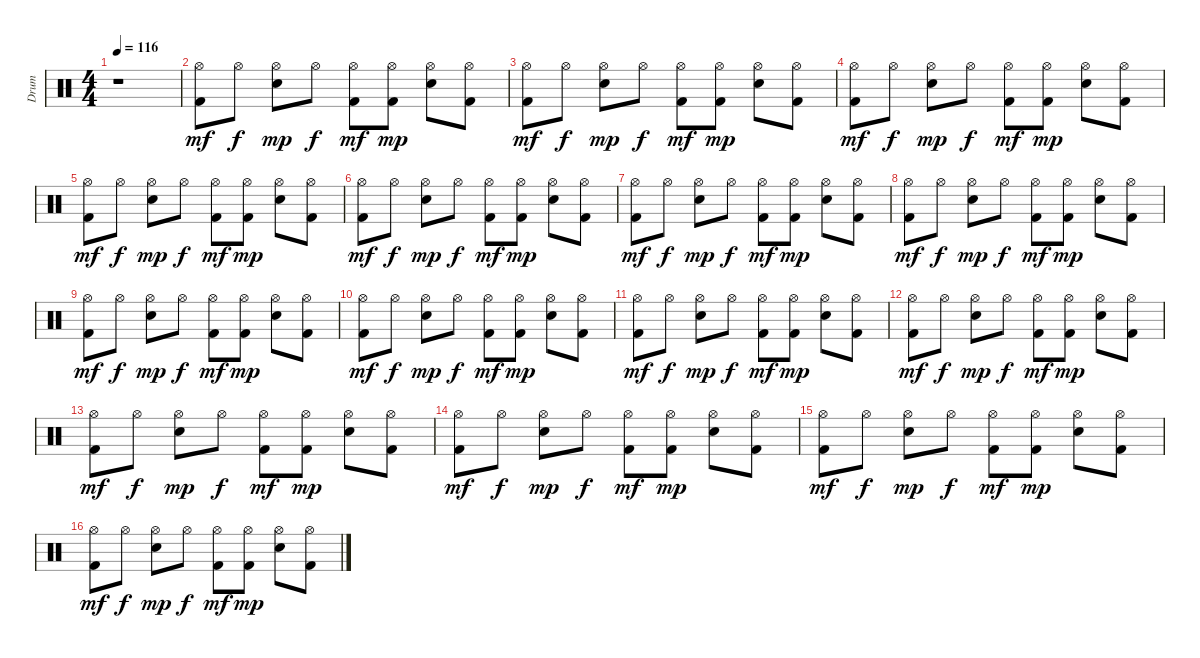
\track ("Drum" "Drum") {instrument percussion}
\staff {score}
\articulation defaults
\ts (4 4)
\tempo 116
\clef neutral
\ks c
r.1{dy mf} |
("Kick (hit) 2" "Hi-Hat (open)").8 "Hi-Hat (open)".8{dy f} ("Snare (hit) 2" "Hi-Hat (open)").8{dy mp} "Hi-Hat (open)".8{dy f} ("Kick (hit) 2" "Hi-Hat (open)").8{dy mf} ("Kick (hit) 2" "Hi-Hat (open)").8{dy mp} ("Snare (hit) 2" "Hi-Hat (open)").8 ("Kick (hit) 2" "Hi-Hat (open)").8 |
("Kick (hit) 2" "Hi-Hat (open)").8{dy mf} "Hi-Hat (open)".8{dy f} ("Snare (hit) 2" "Hi-Hat (open)").8{dy mp} "Hi-Hat (open)".8{dy f} ("Kick (hit) 2" "Hi-Hat (open)").8{dy mf} ("Kick (hit) 2" "Hi-Hat (open)").8{dy mp} ("Snare (hit) 2" "Hi-Hat (open)").8 ("Kick (hit) 2" "Hi-Hat (open)").8 |
("Kick (hit) 2" "Hi-Hat (open)").8{dy mf} "Hi-Hat (open)".8{dy f} ("Snare (hit) 2" "Hi-Hat (open)").8{dy mp} "Hi-Hat (open)".8{dy f} ("Kick (hit) 2" "Hi-Hat (open)").8{dy mf} ("Kick (hit) 2" "Hi-Hat (open)").8{dy mp} ("Snare (hit) 2" "Hi-Hat (open)").8 ("Kick (hit) 2" "Hi-Hat (open)").8 |
("Kick (hit) 2" "Hi-Hat (open)").8{dy mf} "Hi-Hat (open)".8{dy f} ("Snare (hit) 2" "Hi-Hat (open)").8{dy mp} "Hi-Hat (open)".8{dy f} ("Kick (hit) 2" "Hi-Hat (open)").8{dy mf} ("Kick (hit) 2" "Hi-Hat (open)").8{dy mp} ("Snare (hit) 2" "Hi-Hat (open)").8 ("Kick (hit) 2" "Hi-Hat (open)").8 |
("Kick (hit) 2" "Hi-Hat (open)").8{dy mf} "Hi-Hat (open)".8{dy f} ("Snare (hit) 2" "Hi-Hat (open)").8{dy mp} "Hi-Hat (open)".8{dy f} ("Kick (hit) 2" "Hi-Hat (open)").8{dy mf} ("Kick (hit) 2" "Hi-Hat (open)").8{dy mp} ("Snare (hit) 2" "Hi-Hat (open)").8 ("Kick (hit) 2" "Hi-Hat (open)").8 |
("Kick (hit) 2" "Hi-Hat (open)").8{dy mf} "Hi-Hat (open)".8{dy f} ("Snare (hit) 2" "Hi-Hat (open)").8{dy mp} "Hi-Hat (open)".8{dy f} ("Kick (hit) 2" "Hi-Hat (open)").8{dy mf} ("Kick (hit) 2" "Hi-Hat (open)").8{dy mp} ("Snare (hit) 2" "Hi-Hat (open)").8 ("Kick (hit) 2" "Hi-Hat (open)").8 |
("Kick (hit) 2" "Hi-Hat (open)").8{dy mf} "Hi-Hat (open)".8{dy f} ("Snare (hit) 2" "Hi-Hat (open)").8{dy mp} "Hi-Hat (open)".8{dy f} ("Kick (hit) 2" "Hi-Hat (open)").8{dy mf} ("Kick (hit) 2" "Hi-Hat (open)").8{dy mp} ("Snare (hit) 2" "Hi-Hat (open)").8 ("Kick (hit) 2" "Hi-Hat (open)").8 |
("Kick (hit) 2" "Hi-Hat (open)").8{dy mf} "Hi-Hat (open)".8{dy f} ("Snare (hit) 2" "Hi-Hat (open)").8{dy mp} "Hi-Hat (open)".8{dy f} ("Kick (hit) 2" "Hi-Hat (open)").8{dy mf} ("Kick (hit) 2" "Hi-Hat (open)").8{dy mp} ("Snare (hit) 2" "Hi-Hat (open)").8 ("Kick (hit) 2" "Hi-Hat (open)").8 |
("Kick (hit) 2" "Hi-Hat (open)").8{dy mf} "Hi-Hat (open)".8{dy f} ("Snare (hit) 2" "Hi-Hat (open)").8{dy mp} "Hi-Hat (open)".8{dy f} ("Kick (hit) 2" "Hi-Hat (open)").8{dy mf} ("Kick (hit) 2" "Hi-Hat (open)").8{dy mp} ("Snare (hit) 2" "Hi-Hat (open)").8 ("Kick (hit) 2" "Hi-Hat (open)").8 |
("Kick (hit) 2" "Hi-Hat (open)").8{dy mf} "Hi-Hat (open)".8{dy f} ("Snare (hit) 2" "Hi-Hat (open)").8{dy mp} "Hi-Hat (open)".8{dy f} ("Kick (hit) 2" "Hi-Hat (open)").8{dy mf} ("Kick (hit) 2" "Hi-Hat (open)").8{dy mp} ("Snare (hit) 2" "Hi-Hat (open)").8 ("Kick (hit) 2" "Hi-Hat (open)").8 |
("Kick (hit) 2" "Hi-Hat (open)").8{dy mf} "Hi-Hat (open)".8{dy f} ("Snare (hit) 2" "Hi-Hat (open)").8{dy mp} "Hi-Hat (open)".8{dy f} ("Kick (hit) 2" "Hi-Hat (open)").8{dy mf} ("Kick (hit) 2" "Hi-Hat (open)").8{dy mp} ("Snare (hit) 2" "Hi-Hat (open)").8 ("Kick (hit) 2" "Hi-Hat (open)").8 |
("Kick (hit) 2" "Hi-Hat (open)").8{dy mf} "Hi-Hat (open)".8{dy f} ("Snare (hit) 2" "Hi-Hat (open)").8{dy mp} "Hi-Hat (open)".8{dy f} ("Kick (hit) 2" "Hi-Hat (open)").8{dy mf} ("Kick (hit) 2" "Hi-Hat (open)").8{dy mp} ("Snare (hit) 2" "Hi-Hat (open)").8 ("Kick (hit) 2" "Hi-Hat (open)").8 |
("Kick (hit) 2" "Hi-Hat (open)").8{dy mf} "Hi-Hat (open)".8{dy f} ("Snare (hit) 2" "Hi-Hat (open)").8{dy mp} "Hi-Hat (open)".8{dy f} ("Kick (hit) 2" "Hi-Hat (open)").8{dy mf} ("Kick (hit) 2" "Hi-Hat (open)").8{dy mp} ("Snare (hit) 2" "Hi-Hat (open)").8 ("Kick (hit) 2" "Hi-Hat (open)").8 |
("Kick (hit) 2" "Hi-Hat (open)").8{dy mf} "Hi-Hat (open)".8{dy f} ("Snare (hit) 2" "Hi-Hat (open)").8{dy mp} "Hi-Hat (open)".8{dy f} ("Kick (hit) 2" "Hi-Hat (open)").8{dy mf} ("Kick (hit) 2" "Hi-Hat (open)").8{dy mp} ("Snare (hit) 2" "Hi-Hat (open)").8 ("Kick (hit) 2" "Hi-Hat (open)").8 |
("Kick (hit) 2" "Hi-Hat (open)").8{dy mf} "Hi-Hat (open)".8{dy f} ("Snare (hit) 2" "Hi-Hat (open)").8{dy mp} "Hi-Hat (open)".8{dy f} ("Kick (hit) 2" "Hi-Hat (open)").8{dy mf} ("Kick (hit) 2" "Hi-Hat (open)").8{dy mp} ("Snare (hit) 2" "Hi-Hat (open)").8 ("Kick (hit) 2" "Hi-Hat (open)").8
